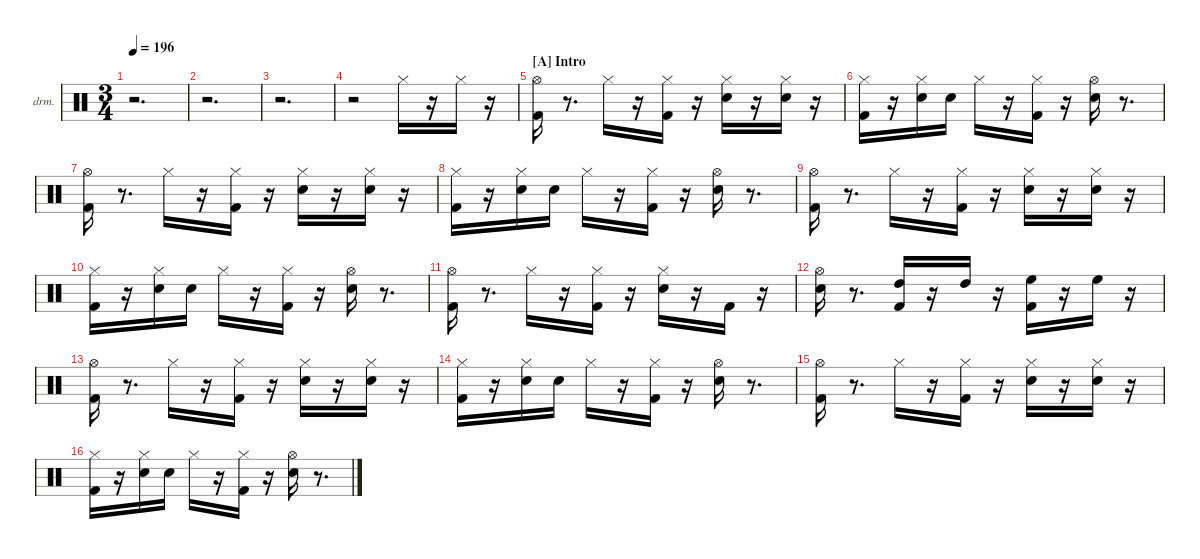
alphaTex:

\hideDynamics
\bracketExtendMode nobrackets
\firstSystemTrackNameOrientation horizontal
\otherSystemsTrackNameOrientation horizontal
\track ("EZdrummer 3" "drm.") {instrument percussion}
\staff {score}
\articulation defaults
\ts (3 4)
\tempo 196
\clef neutral
\ks aminor
r.2{d dy ff beam Down} |
r.2{d beam Down} |
r.2{d beam Down} |
r.2{beam Down} "Hi-Hat (closed)"{acc #}.16{beam Down} r.16{beam Down} "Hi-Hat (closed)"{acc #}.16{beam Down} r.16{beam Down} |
\section ("A" "Intro")
("Kick (hit) 2" "Hi-Hat (open)"{acc #}).16{dy fff beam Down} r.8{d beam Down} "Hi-Hat (closed)"{acc #}.16{dy ff beam Down} r.16{beam Down} ("Kick (hit) 2" "Hi-Hat (closed)"{acc #}).16{dy mf beam Down} r.16{beam Down} ("Snare (hit) 2" "Hi-Hat (closed)"{acc #}).16{dy ff beam Down} r.16{beam Down} ("Snare (hit) 2" "Hi-Hat (closed)"{acc #}).16{dy pp beam Down} r.16{beam Down} |
("Kick (hit) 2" "Hi-Hat (closed)"{acc #}).16{dy ff beam Down} r.16{beam Down} ("Snare (hit) 2" "Hi-Hat (closed)"{acc #}).16{dy ppp beam Down} "Snare (hit) 2".16{beam Down} "Hi-Hat (closed)"{acc #}.16{dy fff beam Down} r.16{beam Down} ("Kick (hit) 2" "Hi-Hat (closed)"{acc #}).16{dy ff beam Down} r.16{beam Down} ("Snare (hit) 2" "Hi-Hat (open)"{acc #}).16{dy fff beam Down} r.8{d beam Down} |
("Kick (hit) 2" "Hi-Hat (open)"{acc #}).16{beam Down} r.8{d beam Down} "Hi-Hat (closed)"{acc #}.16{dy ff beam Down} r.16{beam Down} ("Kick (hit) 2" "Hi-Hat (closed)"{acc #}).16{dy mf beam Down} r.16{beam Down} ("Snare (hit) 2" "Hi-Hat (closed)"{acc #}).16{dy ff beam Down} r.16{beam Down} ("Snare (hit) 2" "Hi-Hat (closed)"{acc #}).16{dy pp beam Down} r.16{beam Down} |
("Kick (hit) 2" "Hi-Hat (closed)"{acc #}).16{dy ff beam Down} r.16{beam Down} ("Snare (hit) 2" "Hi-Hat (closed)"{acc #}).16{dy ppp beam Down} "Snare (hit) 2".16{beam Down} "Hi-Hat (closed)"{acc #}.16{dy fff beam Down} r.16{beam Down} ("Kick (hit) 2" "Hi-Hat (closed)"{acc #}).16{dy ff beam Down} r.16{beam Down} ("Snare (hit) 2" "Hi-Hat (open)"{acc #}).16{dy fff beam Down} r.8{d beam Down} |
("Kick (hit) 2" "Hi-Hat (open)"{acc #}).16{beam Down} r.8{d beam Down} "Hi-Hat (closed)"{acc #}.16{dy ff beam Down} r.16{beam Down} ("Kick (hit) 2" "Hi-Hat (closed)"{acc #}).16{dy mf beam Down} r.16{beam Down} ("Snare (hit) 2" "Hi-Hat (closed)"{acc #}).16{dy ff beam Down} r.16{beam Down} ("Snare (hit) 2" "Hi-Hat (closed)"{acc #}).16{dy pp beam Down} r.16{beam Down} |
("Kick (hit) 2" "Hi-Hat (closed)"{acc #}).16{dy ff beam Down} r.16{beam Down} ("Snare (hit) 2" "Hi-Hat (closed)"{acc #}).16{dy ppp beam Down} "Snare (hit) 2".16{beam Down} "Hi-Hat (closed)"{acc #}.16{dy fff beam Down} r.16{beam Down} ("Kick (hit) 2" "Hi-Hat (closed)"{acc #}).16{dy ff beam Down} r.16{beam Down} ("Snare (hit) 2" "Hi-Hat (open)"{acc #}).16{dy fff beam Down} r.8{d beam Down} |
("Kick (hit) 2" "Hi-Hat (open)"{acc #}).16{dy ff beam Down} r.8{d beam Down} "Hi-Hat (closed)"{acc #}.16{beam Down} r.16{beam Down} ("Kick (hit) 2" "Hi-Hat (closed)"{acc #}).16{beam Down} r.16{beam Down} ("Snare (hit) 2" "Hi-Hat (closed)"{acc #}).16{dy mf beam Down} r.16{beam Down} "Kick (hit) 2".16{dy ff beam Up} r.16{beam Up} |
("Snare (hit) 2" "Hi-Hat (open)"{acc #}).16{beam Down} r.8{d beam Down} ("Kick (hit) 2" "High Tom (hit)").16{dy f beam Up} r.16{beam Up} "High Tom (hit)".16{dy mf beam Down} r.16{beam Down} ("Kick (hit) 2" "High Floor Tom (hit)").16{dy ff beam Down} r.16{beam Down} "High Floor Tom (hit)".16{dy mf beam Down} r.16{beam Down} |
("Kick (hit) 2" "Hi-Hat (open)"{acc #}).16{dy fff beam Down} r.8{d beam Down} "Hi-Hat (closed)"{acc #}.16{dy ff beam Down} r.16{beam Down} ("Kick (hit) 2" "Hi-Hat (closed)"{acc #}).16{dy mf beam Down} r.16{beam Down} ("Snare (hit) 2" "Hi-Hat (closed)"{acc #}).16{dy ff beam Down} r.16{beam Down} ("Snare (hit) 2" "Hi-Hat (closed)"{acc #}).16{dy pp beam Down} r.16{beam Down} |
("Kick (hit) 2" "Hi-Hat (closed)"{acc #}).16{dy ff beam Down} r.16{beam Down} ("Snare (hit) 2" "Hi-Hat (closed)"{acc #}).16{dy ppp beam Down} "Snare (hit) 2".16{beam Down} "Hi-Hat (closed)"{acc #}.16{dy fff beam Down} r.16{beam Down} ("Kick (hit) 2" "Hi-Hat (closed)"{acc #}).16{dy ff beam Down} r.16{beam Down} ("Snare (hit) 2" "Hi-Hat (open)"{acc #}).16{dy fff beam Down} r.8{d beam Down} |
("Kick (hit) 2" "Hi-Hat (open)"{acc #}).16{beam Down} r.8{d beam Down} "Hi-Hat (closed)"{acc #}.16{dy ff beam Down} r.16{beam Down} ("Kick (hit) 2" "Hi-Hat (closed)"{acc #}).16{dy mf beam Down} r.16{beam Down} ("Snare (hit) 2" "Hi-Hat (closed)"{acc #}).16{dy ff beam Down} r.16{beam Down} ("Snare (hit) 2" "Hi-Hat (closed)"{acc #}).16{dy pp beam Down} r.16{beam Down} |
("Kick (hit) 2" "Hi-Hat (closed)"{acc #}).16{dy ff beam Down} r.16{beam Down} ("Snare (hit) 2" "Hi-Hat (closed)"{acc #}).16{dy ppp beam Down} "Snare (hit) 2".16{beam Down} "Hi-Hat (closed)"{acc #}.16{dy fff beam Down} r.16{beam Down} ("Kick (hit) 2" "Hi-Hat (closed)"{acc #}).16{dy ff beam Down} r.16{beam Down} ("Snare (hit) 2" "Hi-Hat (open)"{acc #}).16{dy fff beam Down} r.8{d beam Down}
